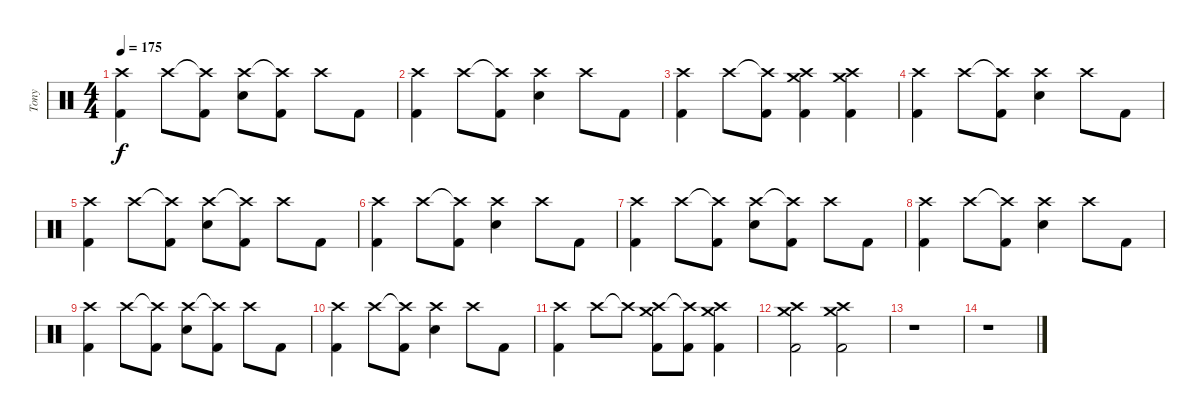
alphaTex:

\track ("Tony" "Tony") {instrument percussion}
\staff {score}
\articulation defaults
\ts (4 4)
\tempo 175
\clef neutral
\ks c
("Crash high (hit)" "Kick (hit) 2").4{dy f} "Crash high (hit)".8 ("Crash high (hit)"{t} "Kick (hit) 2").8 ("Crash high (hit)" "Snare (hit) 2").8 ("Crash high (hit)"{t} "Kick (hit) 2").8 "Crash high (hit)".8 "Kick (hit) 2".8 |
("Crash high (hit)" "Kick (hit) 2").4 "Crash high (hit)".8 ("Crash high (hit)"{t} "Kick (hit) 2").8 ("Crash high (hit)" "Snare (hit) 2").4 "Crash high (hit)".8 "Kick (hit) 2".8 |
("Crash high (hit)" "Kick (hit) 2").4 "Crash high (hit)".8 ("Crash high (hit)"{t} "Kick (hit) 2").8 ("Crash high (hit)" "Crash medium (hit)" "Kick (hit) 2").4 ("Crash high (hit)" "Crash medium (hit)" "Kick (hit) 2").4 |
("Crash high (hit)" "Kick (hit) 2").4 "Crash high (hit)".8 ("Crash high (hit)"{t} "Kick (hit) 2").8 ("Crash high (hit)" "Snare (hit) 2").4 "Crash high (hit)".8 "Kick (hit) 2".8 |
("Crash high (hit)" "Kick (hit) 2").4 "Crash high (hit)".8 ("Crash high (hit)"{t} "Kick (hit) 2").8 ("Crash high (hit)" "Snare (hit) 2").8 ("Crash high (hit)"{t} "Kick (hit) 2").8 "Crash high (hit)".8 "Kick (hit) 2".8 |
("Crash high (hit)" "Kick (hit) 2").4 "Crash high (hit)".8 ("Crash high (hit)"{t} "Kick (hit) 2").8 ("Crash high (hit)" "Snare (hit) 2").4 "Crash high (hit)".8 "Kick (hit) 2".8 |
("Crash high (hit)" "Kick (hit) 2").4 "Crash high (hit)".8 ("Crash high (hit)"{t} "Kick (hit) 2").8 ("Crash high (hit)" "Snare (hit) 2").8 ("Crash high (hit)"{t} "Kick (hit) 2").8 "Crash high (hit)".8 "Kick (hit) 2".8 |
("Crash high (hit)" "Kick (hit) 2").4 "Crash high (hit)".8 ("Crash high (hit)"{t} "Kick (hit) 2").8 ("Crash high (hit)" "Snare (hit) 2").4 "Crash high (hit)".8 "Kick (hit) 2".8 |
("Crash high (hit)" "Kick (hit) 2").4 "Crash high (hit)".8 ("Crash high (hit)"{t} "Kick (hit) 2").8 ("Crash high (hit)" "Snare (hit) 2").8 ("Crash high (hit)"{t} "Kick (hit) 2").8 "Crash high (hit)".8 "Kick (hit) 2".8 |
("Crash high (hit)" "Kick (hit) 2").4 "Crash high (hit)".8 ("Crash high (hit)"{t} "Kick (hit) 2").8 ("Crash high (hit)" "Snare (hit) 2").4 "Crash high (hit)".8 "Kick (hit) 2".8 |
("Crash high (hit)" "Kick (hit) 2").4 "Crash high (hit)".8 "Crash high (hit)"{t}.8 ("Crash high (hit)" "Crash medium (hit)" "Kick (hit) 2").8 ("Crash high (hit)"{t} "Kick (hit) 2").8 ("Crash high (hit)" "Crash medium (hit)" "Kick (hit) 2").4 |
("Crash high (hit)" "Crash medium (hit)" "Kick (hit) 2").2 ("Crash high (hit)" "Crash medium (hit)" "Kick (hit) 2").2 |
r.1 |
r.1
